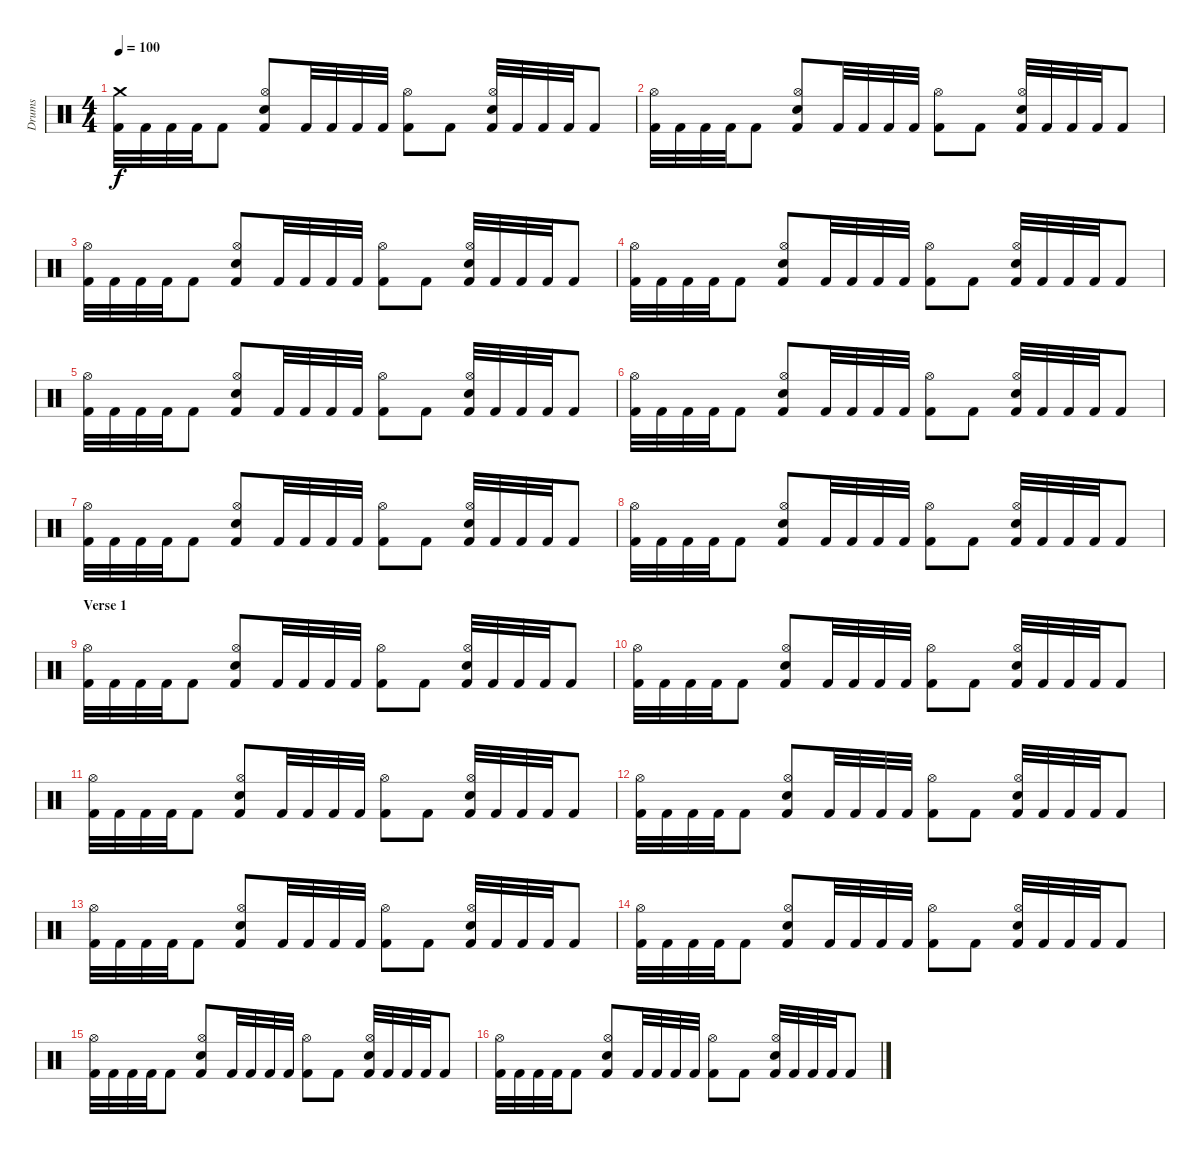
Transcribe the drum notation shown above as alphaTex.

\track ("Drums" "Drums") {instrument percussion}
\staff {score}
\articulation defaults
\ts (4 4)
\tempo 100
\clef neutral
\ks c
("Crash medium (hit)" "Kick (hit) 2").32{dy f} "Kick (hit) 2".32 "Kick (hit) 2".32 "Kick (hit) 2".32 "Kick (hit) 2".8 ("Hi-Hat (open)" "Snare (hit) 2" "Kick (hit) 2").8 "Kick (hit) 2".32 "Kick (hit) 2".32 "Kick (hit) 2".32 "Kick (hit) 2".32 ("Hi-Hat (open)" "Kick (hit) 2").8 "Kick (hit) 2".8 ("Hi-Hat (open)" "Snare (hit) 2" "Kick (hit) 2").32 "Kick (hit) 2".32 "Kick (hit) 2".32 "Kick (hit) 2".32 "Kick (hit) 2".8 |
("Hi-Hat (open)" "Kick (hit) 2").32 "Kick (hit) 2".32 "Kick (hit) 2".32 "Kick (hit) 2".32 "Kick (hit) 2".8 ("Hi-Hat (open)" "Snare (hit) 2" "Kick (hit) 2").8 "Kick (hit) 2".32 "Kick (hit) 2".32 "Kick (hit) 2".32 "Kick (hit) 2".32 ("Hi-Hat (open)" "Kick (hit) 2").8 "Kick (hit) 2".8 ("Hi-Hat (open)" "Snare (hit) 2" "Kick (hit) 2").32 "Kick (hit) 2".32 "Kick (hit) 2".32 "Kick (hit) 2".32 "Kick (hit) 2".8 |
("Hi-Hat (open)" "Kick (hit) 2").32 "Kick (hit) 2".32 "Kick (hit) 2".32 "Kick (hit) 2".32 "Kick (hit) 2".8 ("Hi-Hat (open)" "Snare (hit) 2" "Kick (hit) 2").8 "Kick (hit) 2".32 "Kick (hit) 2".32 "Kick (hit) 2".32 "Kick (hit) 2".32 ("Hi-Hat (open)" "Kick (hit) 2").8 "Kick (hit) 2".8 ("Hi-Hat (open)" "Snare (hit) 2" "Kick (hit) 2").32 "Kick (hit) 2".32 "Kick (hit) 2".32 "Kick (hit) 2".32 "Kick (hit) 2".8 |
("Hi-Hat (open)" "Kick (hit) 2").32 "Kick (hit) 2".32 "Kick (hit) 2".32 "Kick (hit) 2".32 "Kick (hit) 2".8 ("Hi-Hat (open)" "Snare (hit) 2" "Kick (hit) 2").8 "Kick (hit) 2".32 "Kick (hit) 2".32 "Kick (hit) 2".32 "Kick (hit) 2".32 ("Hi-Hat (open)" "Kick (hit) 2").8 "Kick (hit) 2".8 ("Hi-Hat (open)" "Snare (hit) 2" "Kick (hit) 2").32 "Kick (hit) 2".32 "Kick (hit) 2".32 "Kick (hit) 2".32 "Kick (hit) 2".8 |
("Hi-Hat (open)" "Kick (hit) 2").32 "Kick (hit) 2".32 "Kick (hit) 2".32 "Kick (hit) 2".32 "Kick (hit) 2".8 ("Hi-Hat (open)" "Snare (hit) 2" "Kick (hit) 2").8 "Kick (hit) 2".32 "Kick (hit) 2".32 "Kick (hit) 2".32 "Kick (hit) 2".32 ("Hi-Hat (open)" "Kick (hit) 2").8 "Kick (hit) 2".8 ("Hi-Hat (open)" "Snare (hit) 2" "Kick (hit) 2").32 "Kick (hit) 2".32 "Kick (hit) 2".32 "Kick (hit) 2".32 "Kick (hit) 2".8 |
("Hi-Hat (open)" "Kick (hit) 2").32 "Kick (hit) 2".32 "Kick (hit) 2".32 "Kick (hit) 2".32 "Kick (hit) 2".8 ("Hi-Hat (open)" "Snare (hit) 2" "Kick (hit) 2").8 "Kick (hit) 2".32 "Kick (hit) 2".32 "Kick (hit) 2".32 "Kick (hit) 2".32 ("Hi-Hat (open)" "Kick (hit) 2").8 "Kick (hit) 2".8 ("Hi-Hat (open)" "Snare (hit) 2" "Kick (hit) 2").32 "Kick (hit) 2".32 "Kick (hit) 2".32 "Kick (hit) 2".32 "Kick (hit) 2".8 |
("Hi-Hat (open)" "Kick (hit) 2").32 "Kick (hit) 2".32 "Kick (hit) 2".32 "Kick (hit) 2".32 "Kick (hit) 2".8 ("Hi-Hat (open)" "Snare (hit) 2" "Kick (hit) 2").8 "Kick (hit) 2".32 "Kick (hit) 2".32 "Kick (hit) 2".32 "Kick (hit) 2".32 ("Hi-Hat (open)" "Kick (hit) 2").8 "Kick (hit) 2".8 ("Hi-Hat (open)" "Snare (hit) 2" "Kick (hit) 2").32 "Kick (hit) 2".32 "Kick (hit) 2".32 "Kick (hit) 2".32 "Kick (hit) 2".8 |
("Hi-Hat (open)" "Kick (hit) 2").32 "Kick (hit) 2".32 "Kick (hit) 2".32 "Kick (hit) 2".32 "Kick (hit) 2".8 ("Hi-Hat (open)" "Snare (hit) 2" "Kick (hit) 2").8 "Kick (hit) 2".32 "Kick (hit) 2".32 "Kick (hit) 2".32 "Kick (hit) 2".32 ("Hi-Hat (open)" "Kick (hit) 2").8 "Kick (hit) 2".8 ("Hi-Hat (open)" "Snare (hit) 2" "Kick (hit) 2").32 "Kick (hit) 2".32 "Kick (hit) 2".32 "Kick (hit) 2".32 "Kick (hit) 2".8 |
\section ("" "Verse 1")
("Hi-Hat (open)" "Kick (hit) 2").32 "Kick (hit) 2".32 "Kick (hit) 2".32 "Kick (hit) 2".32 "Kick (hit) 2".8 ("Hi-Hat (open)" "Snare (hit) 2" "Kick (hit) 2").8 "Kick (hit) 2".32 "Kick (hit) 2".32 "Kick (hit) 2".32 "Kick (hit) 2".32 ("Hi-Hat (open)" "Kick (hit) 2").8 "Kick (hit) 2".8 ("Hi-Hat (open)" "Snare (hit) 2" "Kick (hit) 2").32 "Kick (hit) 2".32 "Kick (hit) 2".32 "Kick (hit) 2".32 "Kick (hit) 2".8 |
("Hi-Hat (open)" "Kick (hit) 2").32 "Kick (hit) 2".32 "Kick (hit) 2".32 "Kick (hit) 2".32 "Kick (hit) 2".8 ("Hi-Hat (open)" "Snare (hit) 2" "Kick (hit) 2").8 "Kick (hit) 2".32 "Kick (hit) 2".32 "Kick (hit) 2".32 "Kick (hit) 2".32 ("Hi-Hat (open)" "Kick (hit) 2").8 "Kick (hit) 2".8 ("Hi-Hat (open)" "Snare (hit) 2" "Kick (hit) 2").32 "Kick (hit) 2".32 "Kick (hit) 2".32 "Kick (hit) 2".32 "Kick (hit) 2".8 |
("Hi-Hat (open)" "Kick (hit) 2").32 "Kick (hit) 2".32 "Kick (hit) 2".32 "Kick (hit) 2".32 "Kick (hit) 2".8 ("Hi-Hat (open)" "Snare (hit) 2" "Kick (hit) 2").8 "Kick (hit) 2".32 "Kick (hit) 2".32 "Kick (hit) 2".32 "Kick (hit) 2".32 ("Hi-Hat (open)" "Kick (hit) 2").8 "Kick (hit) 2".8 ("Hi-Hat (open)" "Snare (hit) 2" "Kick (hit) 2").32 "Kick (hit) 2".32 "Kick (hit) 2".32 "Kick (hit) 2".32 "Kick (hit) 2".8 |
("Hi-Hat (open)" "Kick (hit) 2").32 "Kick (hit) 2".32 "Kick (hit) 2".32 "Kick (hit) 2".32 "Kick (hit) 2".8 ("Hi-Hat (open)" "Snare (hit) 2" "Kick (hit) 2").8 "Kick (hit) 2".32 "Kick (hit) 2".32 "Kick (hit) 2".32 "Kick (hit) 2".32 ("Hi-Hat (open)" "Kick (hit) 2").8 "Kick (hit) 2".8 ("Hi-Hat (open)" "Snare (hit) 2" "Kick (hit) 2").32 "Kick (hit) 2".32 "Kick (hit) 2".32 "Kick (hit) 2".32 "Kick (hit) 2".8 |
("Hi-Hat (open)" "Kick (hit) 2").32 "Kick (hit) 2".32 "Kick (hit) 2".32 "Kick (hit) 2".32 "Kick (hit) 2".8 ("Hi-Hat (open)" "Snare (hit) 2" "Kick (hit) 2").8 "Kick (hit) 2".32 "Kick (hit) 2".32 "Kick (hit) 2".32 "Kick (hit) 2".32 ("Hi-Hat (open)" "Kick (hit) 2").8 "Kick (hit) 2".8 ("Hi-Hat (open)" "Snare (hit) 2" "Kick (hit) 2").32 "Kick (hit) 2".32 "Kick (hit) 2".32 "Kick (hit) 2".32 "Kick (hit) 2".8 |
("Hi-Hat (open)" "Kick (hit) 2").32 "Kick (hit) 2".32 "Kick (hit) 2".32 "Kick (hit) 2".32 "Kick (hit) 2".8 ("Hi-Hat (open)" "Snare (hit) 2" "Kick (hit) 2").8 "Kick (hit) 2".32 "Kick (hit) 2".32 "Kick (hit) 2".32 "Kick (hit) 2".32 ("Hi-Hat (open)" "Kick (hit) 2").8 "Kick (hit) 2".8 ("Hi-Hat (open)" "Snare (hit) 2" "Kick (hit) 2").32 "Kick (hit) 2".32 "Kick (hit) 2".32 "Kick (hit) 2".32 "Kick (hit) 2".8 |
("Hi-Hat (open)" "Kick (hit) 2").32 "Kick (hit) 2".32 "Kick (hit) 2".32 "Kick (hit) 2".32 "Kick (hit) 2".8 ("Hi-Hat (open)" "Snare (hit) 2" "Kick (hit) 2").8 "Kick (hit) 2".32 "Kick (hit) 2".32 "Kick (hit) 2".32 "Kick (hit) 2".32 ("Hi-Hat (open)" "Kick (hit) 2").8 "Kick (hit) 2".8 ("Hi-Hat (open)" "Snare (hit) 2" "Kick (hit) 2").32 "Kick (hit) 2".32 "Kick (hit) 2".32 "Kick (hit) 2".32 "Kick (hit) 2".8 |
("Hi-Hat (open)" "Kick (hit) 2").32 "Kick (hit) 2".32 "Kick (hit) 2".32 "Kick (hit) 2".32 "Kick (hit) 2".8 ("Hi-Hat (open)" "Snare (hit) 2" "Kick (hit) 2").8 "Kick (hit) 2".32 "Kick (hit) 2".32 "Kick (hit) 2".32 "Kick (hit) 2".32 ("Hi-Hat (open)" "Kick (hit) 2").8 "Kick (hit) 2".8 ("Hi-Hat (open)" "Snare (hit) 2" "Kick (hit) 2").32 "Kick (hit) 2".32 "Kick (hit) 2".32 "Kick (hit) 2".32 "Kick (hit) 2".8
